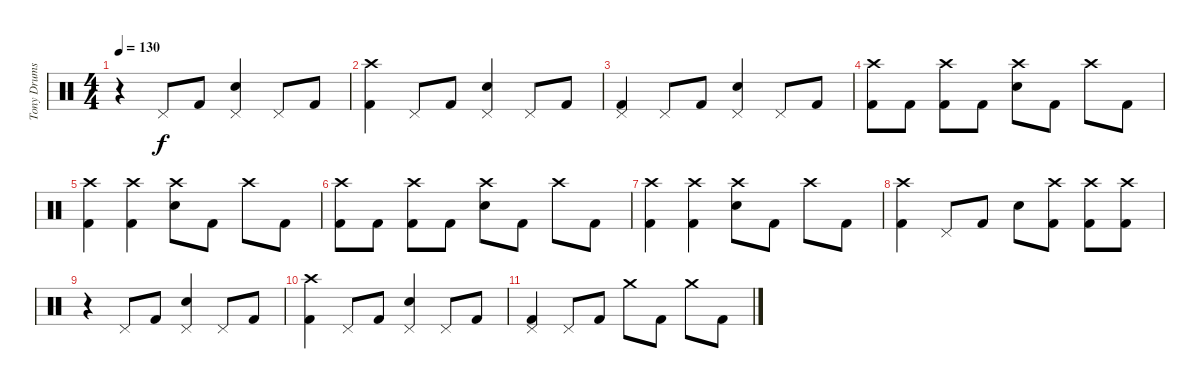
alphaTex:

\track ("Tony Drums" "Tony Drums") {instrument percussion}
\staff {score}
\articulation defaults
\ts (4 4)
\tempo 130
\clef neutral
\ks c
r.4{dy f} "Pedal Hi-Hat (hit)".8 "Kick (hit) 2".8 ("Pedal Hi-Hat (hit)" "Snare (hit) 2").4 "Pedal Hi-Hat (hit)".8 "Kick (hit) 2".8 |
("Crash high (hit)" "Kick (hit) 2").4 "Pedal Hi-Hat (hit)".8 "Kick (hit) 2".8 ("Pedal Hi-Hat (hit)" "Snare (hit) 2").4 "Pedal Hi-Hat (hit)".8 "Kick (hit) 2".8 |
("Pedal Hi-Hat (hit)" "Kick (hit) 2").4 "Pedal Hi-Hat (hit)".8 "Kick (hit) 2".8 ("Pedal Hi-Hat (hit)" "Snare (hit) 2").4 "Pedal Hi-Hat (hit)".8 "Kick (hit) 2".8 |
("Crash high (hit)" "Kick (hit) 2").8 "Kick (hit) 2".8 ("Crash high (hit)" "Kick (hit) 2").8 "Kick (hit) 2".8 ("Crash high (hit)" "Snare (hit) 2").8 "Kick (hit) 2".8 "Crash high (hit)".8 "Kick (hit) 2".8 |
("Crash high (hit)" "Kick (hit) 2").4 ("Crash high (hit)" "Kick (hit) 2").4 ("Crash high (hit)" "Snare (hit) 2").8 "Kick (hit) 2".8 "Crash high (hit)".8 "Kick (hit) 2".8 |
("Crash high (hit)" "Kick (hit) 2").8 "Kick (hit) 2".8 ("Crash high (hit)" "Kick (hit) 2").8 "Kick (hit) 2".8 ("Crash high (hit)" "Snare (hit) 2").8 "Kick (hit) 2".8 "Crash high (hit)".8 "Kick (hit) 2".8 |
("Crash high (hit)" "Kick (hit) 2").4 ("Crash high (hit)" "Kick (hit) 2").4 ("Crash high (hit)" "Snare (hit) 2").8 "Kick (hit) 2".8 "Crash high (hit)".8 "Kick (hit) 2".8 |
("Crash high (hit)" "Kick (hit) 2").4 "Pedal Hi-Hat (hit)".8 "Kick (hit) 2".8 "Snare (hit) 2".8 ("Crash high (hit)" "Kick (hit) 2").8 ("Crash high (hit)" "Kick (hit) 2").8 ("Crash high (hit)" "Kick (hit) 2").8 |
r.4 "Pedal Hi-Hat (hit)".8 "Kick (hit) 2".8 ("Pedal Hi-Hat (hit)" "Snare (hit) 2").4 "Pedal Hi-Hat (hit)".8 "Kick (hit) 2".8 |
("Crash high (hit)" "Kick (hit) 2").4 "Pedal Hi-Hat (hit)".8 "Kick (hit) 2".8 ("Pedal Hi-Hat (hit)" "Snare (hit) 2").4 "Pedal Hi-Hat (hit)".8 "Kick (hit) 2".8 |
("Pedal Hi-Hat (hit)" "Kick (hit) 2").4 "Pedal Hi-Hat (hit)".8 "Kick (hit) 2".8 "Crash medium (hit)".8 "Kick (hit) 2".8 "Crash medium (hit)".8 "Kick (hit) 2".8
